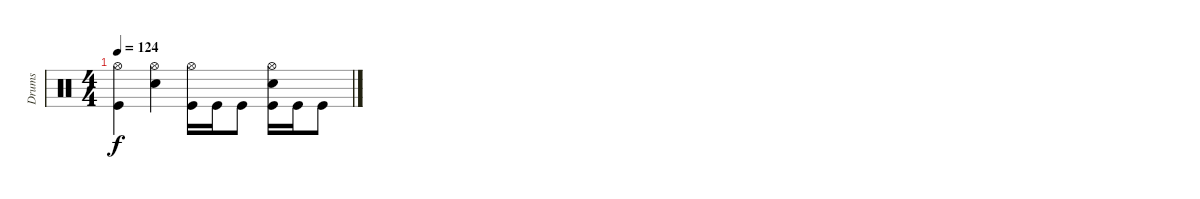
\track ("Drums" "Drums") {instrument percussion}
\staff {score}
\articulation defaults
\ts (4 4)
\tempo 124
\clef neutral
\ks c
("Hi-Hat (open)" "Kick (hit)").4{dy f} ("Hi-Hat (open)" "Electric Snare (hit)").4 ("Hi-Hat (open)" "Kick (hit)").16 "Kick (hit)".16 "Kick (hit)".8 ("Hi-Hat (open)" "Electric Snare (hit)" "Kick (hit)").16 "Kick (hit)".16 "Kick (hit)".8
